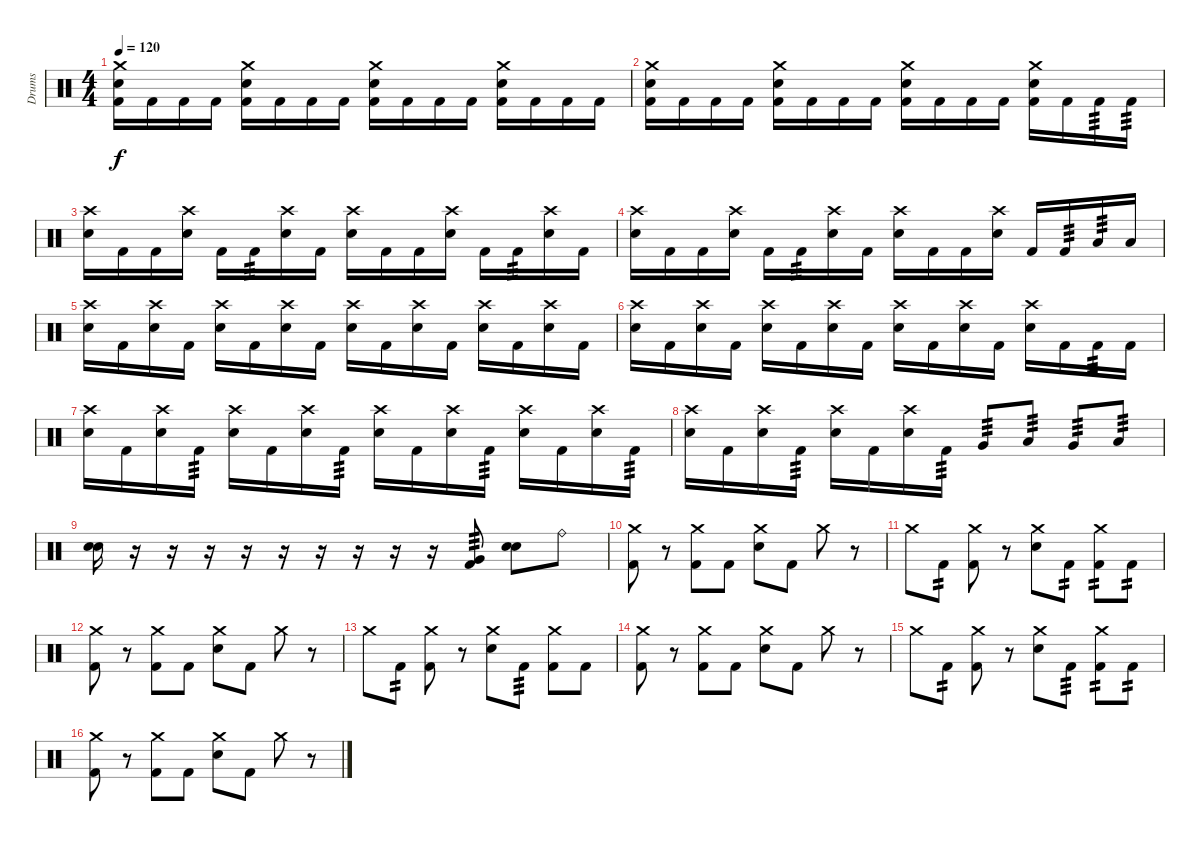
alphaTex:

\track ("Drums" "Drums") {instrument percussion}
\staff {score}
\articulation defaults
\ts (4 4)
\tempo 120
\clef neutral
\ks c
("Crash medium (hit)" "Electric Snare (hit)" "Kick (hit) 2").16{dy f} "Kick (hit) 2".16 "Kick (hit) 2".16 "Kick (hit) 2".16 ("Crash medium (hit)" "Electric Snare (hit)" "Kick (hit) 2").16 "Kick (hit) 2".16 "Kick (hit) 2".16 "Kick (hit) 2".16 ("Crash medium (hit)" "Electric Snare (hit)" "Kick (hit) 2").16 "Kick (hit) 2".16 "Kick (hit) 2".16 "Kick (hit) 2".16 ("Crash medium (hit)" "Electric Snare (hit)" "Kick (hit) 2").16 "Kick (hit) 2".16 "Kick (hit) 2".16 "Kick (hit) 2".16 |
("Crash medium (hit)" "Electric Snare (hit)" "Kick (hit) 2").16 "Kick (hit) 2".16 "Kick (hit) 2".16 "Kick (hit) 2".16 ("Crash medium (hit)" "Electric Snare (hit)" "Kick (hit) 2").16 "Kick (hit) 2".16 "Kick (hit) 2".16 "Kick (hit) 2".16 ("Crash medium (hit)" "Electric Snare (hit)" "Kick (hit) 2").16 "Kick (hit) 2".16 "Kick (hit) 2".16 "Kick (hit) 2".16 ("Crash medium (hit)" "Electric Snare (hit)" "Kick (hit) 2").16 "Kick (hit) 2".16 "Kick (hit) 2".16{tp 3} "Kick (hit) 2".16{tp 3} |
("Crash high (hit)" "Electric Snare (hit)").16 "Kick (hit) 2".16 "Kick (hit) 2".16 ("Crash high (hit)" "Electric Snare (hit)").16 "Kick (hit) 2".16 "Kick (hit) 2".16{tp 3} ("Crash high (hit)" "Electric Snare (hit)").16 "Kick (hit) 2".16 ("Crash high (hit)" "Electric Snare (hit)").16 "Kick (hit) 2".16 "Kick (hit) 2".16 ("Crash high (hit)" "Electric Snare (hit)").16 "Kick (hit) 2".16 "Kick (hit) 2".16{tp 3} ("Crash high (hit)" "Electric Snare (hit)").16 "Kick (hit) 2".16 |
("Crash high (hit)" "Electric Snare (hit)").16 "Kick (hit) 2".16 "Kick (hit) 2".16 ("Crash high (hit)" "Electric Snare (hit)").16 "Kick (hit) 2".16 "Kick (hit) 2".16{tp 3} ("Crash high (hit)" "Electric Snare (hit)").16 "Kick (hit) 2".16 ("Crash high (hit)" "Electric Snare (hit)").16 "Kick (hit) 2".16 "Kick (hit) 2".16 ("Crash high (hit)" "Electric Snare (hit)").16 "Kick (hit) 2".16 "Kick (hit) 2".16{tp 3} "Low Floor Tom (hit)".16{tp 3} "Low Floor Tom (hit)".16 |
("Crash high (hit)" "Electric Snare (hit)").16 "Kick (hit) 2".16 ("Crash high (hit)" "Electric Snare (hit)").16 "Kick (hit) 2".16 ("Crash high (hit)" "Electric Snare (hit)").16 "Kick (hit) 2".16 ("Crash high (hit)" "Electric Snare (hit)").16 "Kick (hit) 2".16 ("Crash high (hit)" "Electric Snare (hit)").16 "Kick (hit) 2".16 ("Crash high (hit)" "Electric Snare (hit)").16 "Kick (hit) 2".16 ("Crash high (hit)" "Electric Snare (hit)").16 "Kick (hit) 2".16 ("Crash high (hit)" "Electric Snare (hit)").16 "Kick (hit) 2".16 |
("Crash high (hit)" "Electric Snare (hit)").16 "Kick (hit) 2".16 ("Crash high (hit)" "Electric Snare (hit)").16 "Kick (hit) 2".16 ("Crash high (hit)" "Electric Snare (hit)").16 "Kick (hit) 2".16 ("Crash high (hit)" "Electric Snare (hit)").16 "Kick (hit) 2".16 ("Crash high (hit)" "Electric Snare (hit)").16 "Kick (hit) 2".16 ("Crash high (hit)" "Electric Snare (hit)").16 "Kick (hit) 2".16 ("Crash high (hit)" "Electric Snare (hit)").16 "Kick (hit) 2".16 "Kick (hit) 2".16{tp 3} "Kick (hit) 2".16 |
("Crash high (hit)" "Electric Snare (hit)").16 "Kick (hit) 2".16 ("Crash high (hit)" "Electric Snare (hit)").16 "Kick (hit) 2".16{tp 3} ("Crash high (hit)" "Electric Snare (hit)").16 "Kick (hit) 2".16 ("Crash high (hit)" "Electric Snare (hit)").16 "Kick (hit) 2".16{tp 3} ("Crash high (hit)" "Electric Snare (hit)").16 "Kick (hit) 2".16 ("Crash high (hit)" "Electric Snare (hit)").16 "Kick (hit) 2".16{tp 3} ("Crash high (hit)" "Electric Snare (hit)").16 "Kick (hit) 2".16 ("Crash high (hit)" "Electric Snare (hit)").16 "Kick (hit) 2".16{tp 3} |
("Crash high (hit)" "Electric Snare (hit)").16 "Kick (hit) 2".16 ("Crash high (hit)" "Electric Snare (hit)").16 "Kick (hit) 2".16{tp 3} ("Crash high (hit)" "Electric Snare (hit)").16 "Kick (hit) 2".16 ("Crash high (hit)" "Electric Snare (hit)").16 "Kick (hit) 2".16{tp 3} "Very Low Tom (hit)".8{tp 3} "Low Floor Tom (hit)".8{tp 3} "Very Low Tom (hit)".8{tp 3} "Low Floor Tom (hit)".8{tp 3} |
("Electric Snare (hit)" "Electric Snare (hit)").16 r.16 r.16 r.16 r.16 r.16 r.16 r.16 r.16 r.16 ("Very Low Tom (hit)" "Kick (hit) 2").8{tp 3} ("Electric Snare (hit)" "Electric Snare (hit)").8 "Ride (bell)".8 |
("Crash medium (hit)" "Kick (hit) 2").8 r.8 ("Crash medium (hit)" "Kick (hit) 2").8 "Kick (hit) 2".8 ("Crash medium (hit)" "Electric Snare (hit)").8 "Kick (hit) 2".8 "Crash medium (hit)".8 r.8 |
"Crash medium (hit)".8 "Kick (hit) 2".8{tp 2} ("Crash medium (hit)" "Kick (hit) 2").8 r.8 ("Crash medium (hit)" "Electric Snare (hit)").8 "Kick (hit) 2".8{tp 2} ("Crash medium (hit)" "Kick (hit) 2").8{tp 2} "Kick (hit) 2".8{tp 2} |
("Crash medium (hit)" "Kick (hit) 2").8 r.8 ("Crash medium (hit)" "Kick (hit) 2").8 "Kick (hit) 2".8 ("Crash medium (hit)" "Electric Snare (hit)").8 "Kick (hit) 2".8 "Crash medium (hit)".8 r.8 |
"Crash medium (hit)".8 "Kick (hit) 2".8{tp 2} ("Crash medium (hit)" "Kick (hit) 2").8 r.8 ("Crash medium (hit)" "Electric Snare (hit)").8 "Kick (hit) 2".8{tp 3} ("Crash medium (hit)" "Kick (hit) 2").8 "Kick (hit) 2".8 |
("Crash medium (hit)" "Kick (hit) 2").8 r.8 ("Crash medium (hit)" "Kick (hit) 2").8 "Kick (hit) 2".8 ("Crash medium (hit)" "Electric Snare (hit)").8 "Kick (hit) 2".8 "Crash medium (hit)".8 r.8 |
"Crash medium (hit)".8 "Kick (hit) 2".8{tp 2} ("Crash medium (hit)" "Kick (hit) 2").8 r.8 ("Crash medium (hit)" "Electric Snare (hit)").8 "Kick (hit) 2".8{tp 3} ("Crash medium (hit)" "Kick (hit) 2").8{tp 2} "Kick (hit) 2".8{tp 2} |
("Crash medium (hit)" "Kick (hit) 2").8 r.8 ("Crash medium (hit)" "Kick (hit) 2").8 "Kick (hit) 2".8 ("Crash medium (hit)" "Electric Snare (hit)").8 "Kick (hit) 2".8 "Crash medium (hit)".8 r.8
